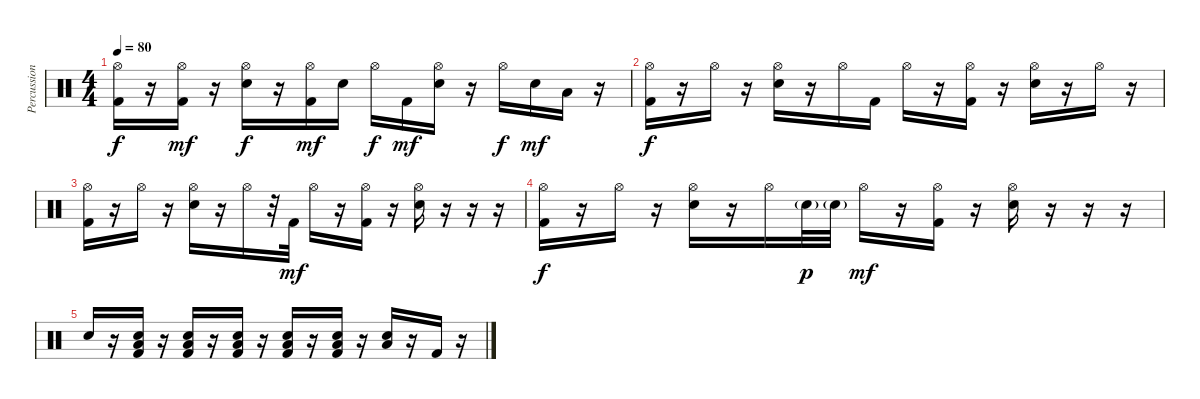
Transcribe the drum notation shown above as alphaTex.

\track ("Percussion" "Percussion") {instrument percussion}
\staff {score}
\articulation defaults
\ts (4 4)
\tempo 80
\clef neutral
\ks c
("Hi-Hat (open)" "Kick (hit) 2").16{dy f} r.16 ("Hi-Hat (open)" "Kick (hit) 2").16{dy mf} r.16 ("Hi-Hat (open)" "Snare (hit) 2").16{dy f} r.16 ("Hi-Hat (open)" "Kick (hit) 2").16{dy mf} "Snare (hit) 2".16 "Hi-Hat (open)".16{dy f} "Kick (hit) 2".16{dy mf} ("Hi-Hat (open)" "Snare (hit) 2").16 r.16 "Hi-Hat (open)".16{dy f} "Snare (hit) 2".16{dy mf} "Low Tom (hit)".16 r.16 |
("Hi-Hat (open)" "Kick (hit) 2").16{dy f} r.16 "Hi-Hat (open)".16 r.16 ("Hi-Hat (open)" "Snare (hit) 2").16 r.16 "Hi-Hat (open)".16 "Kick (hit) 2".16 "Hi-Hat (open)".16 r.16 ("Hi-Hat (open)" "Kick (hit) 2").16 r.16 ("Hi-Hat (open)" "Snare (hit) 2").16 r.16 "Hi-Hat (open)".16 r.16 |
("Hi-Hat (open)" "Kick (hit) 2").16 r.16 "Hi-Hat (open)".16 r.16 ("Hi-Hat (open)" "Snare (hit) 2").16 r.16 "Hi-Hat (open)".16 r.32 "Kick (hit) 2".32{dy mf} "Hi-Hat (open)".16 r.16 ("Hi-Hat (open)" "Kick (hit) 2").16 r.16 ("Hi-Hat (open)" "Snare (hit) 2").16 r.16 r.16 r.16 |
("Hi-Hat (open)" "Kick (hit) 2").16{dy f} r.16 "Hi-Hat (open)".16 r.16 ("Hi-Hat (open)" "Snare (hit) 2").16 r.16 "Hi-Hat (open)".16 "Snare (hit) 2"{g}.32{dy p} "Snare (hit) 2"{g}.32 "Hi-Hat (open)".16{dy mf} r.16 ("Hi-Hat (open)" "Kick (hit) 2").16 r.16 ("Hi-Hat (open)" "Snare (hit) 2").16 r.16 r.16 r.16 |
"Snare (hit) 2".16 r.16 ("Snare (hit) 2" "Low Tom (hit)" "Kick (hit) 2").16 r.16 ("Snare (hit) 2" "Low Tom (hit)" "Kick (hit) 2").16 r.16 ("Snare (hit) 2" "Low Tom (hit)" "Kick (hit) 2").16 r.16 ("Snare (hit) 2" "Low Tom (hit)" "Kick (hit) 2").16 r.16 ("Snare (hit) 2" "Low Tom (hit)" "Kick (hit) 2").16 r.16 ("Snare (hit) 2" "Low Tom (hit)").16 r.16 "Kick (hit) 2".16 r.16
